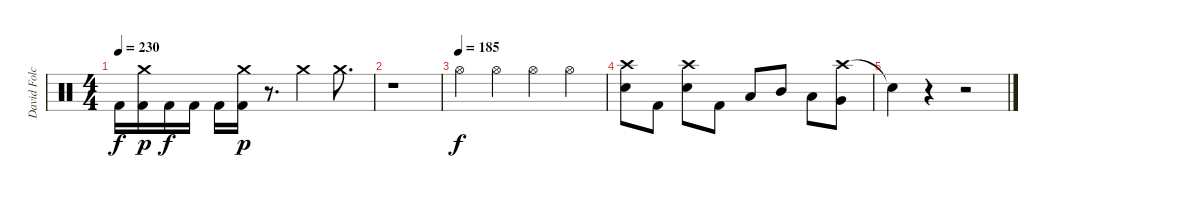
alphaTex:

\track ("David Folchitto (Drums)" "David Folc") {instrument percussion}
\staff {score}
\articulation defaults
\ts (4 4)
\tempo 230
\clef neutral
\ks c "Kick (hit) 2".16{dy f}
("Crash medium (hit)" "Kick (hit) 2").16{dy p} "Kick (hit) 2".16{dy f} "Kick (hit) 2".16 "Kick (hit) 2".16 ("Crash medium (hit)" "Kick (hit) 2").16{dy p} r.8{d} "Crash medium (hit)".4 "Crash medium (hit)".8{d} |
r.1 |
\tempo (185)
"Hi-Hat (open)".4{dy f} "Hi-Hat (open)".4 "Hi-Hat (open)".4 "Hi-Hat (open)".4 |
("Crash high (hit)" "Snare (hit) 2").8 "Kick (hit) 2".8 ("Crash high (hit)" "Snare (hit) 2").8 "Kick (hit) 2".8 "Low Tom (hit)".8 "Mid Tom (hit)".8 "Low Tom (hit)".8 ("Crash high (hit)" "Very Low Tom (hit)").8 |
"Snare (hit)"{t}.4 r.4 r.2
